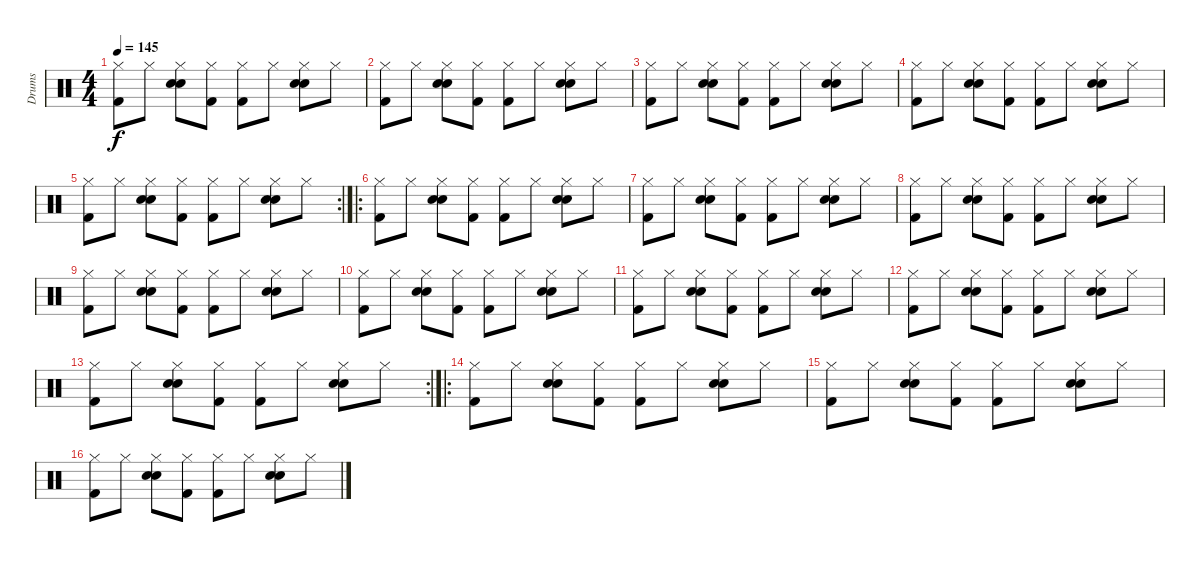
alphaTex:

\track ("Drums" "Drums") {instrument percussion}
\staff {score}
\articulation defaults
\ts (4 4)
\tempo 145
\clef neutral
\ks c
("Hi-Hat (closed)" "Kick (hit) 2").8{dy f} "Hi-Hat (closed)".8 ("Hi-Hat (closed)" "Electric Snare (hit)" "Snare (hit) 2").8 ("Hi-Hat (closed)" "Kick (hit) 2").8 ("Hi-Hat (closed)" "Kick (hit) 2").8 "Hi-Hat (closed)".8 ("Hi-Hat (closed)" "Electric Snare (hit)" "Snare (hit) 2").8 "Hi-Hat (closed)".8 |
("Hi-Hat (closed)" "Kick (hit) 2").8 "Hi-Hat (closed)".8 ("Hi-Hat (closed)" "Electric Snare (hit)" "Snare (hit) 2").8 ("Hi-Hat (closed)" "Kick (hit) 2").8 ("Hi-Hat (closed)" "Kick (hit) 2").8 "Hi-Hat (closed)".8 ("Hi-Hat (closed)" "Electric Snare (hit)" "Snare (hit) 2").8 "Hi-Hat (closed)".8 |
("Hi-Hat (closed)" "Kick (hit) 2").8 "Hi-Hat (closed)".8 ("Hi-Hat (closed)" "Electric Snare (hit)" "Snare (hit) 2").8 ("Hi-Hat (closed)" "Kick (hit) 2").8 ("Hi-Hat (closed)" "Kick (hit) 2").8 "Hi-Hat (closed)".8 ("Hi-Hat (closed)" "Electric Snare (hit)" "Snare (hit) 2").8 "Hi-Hat (closed)".8 |
("Hi-Hat (closed)" "Kick (hit) 2").8 "Hi-Hat (closed)".8 ("Hi-Hat (closed)" "Electric Snare (hit)" "Snare (hit) 2").8 ("Hi-Hat (closed)" "Kick (hit) 2").8 ("Hi-Hat (closed)" "Kick (hit) 2").8 "Hi-Hat (closed)".8 ("Hi-Hat (closed)" "Electric Snare (hit)" "Snare (hit) 2").8 "Hi-Hat (closed)".8 |
\rc 2
("Hi-Hat (closed)" "Kick (hit) 2").8 "Hi-Hat (closed)".8 ("Hi-Hat (closed)" "Electric Snare (hit)" "Snare (hit) 2").8 ("Hi-Hat (closed)" "Kick (hit) 2").8 ("Hi-Hat (closed)" "Kick (hit) 2").8 "Hi-Hat (closed)".8 ("Hi-Hat (closed)" "Electric Snare (hit)" "Snare (hit) 2").8 "Hi-Hat (closed)".8 |
\ro
("Hi-Hat (closed)" "Kick (hit) 2").8 "Hi-Hat (closed)".8 ("Hi-Hat (closed)" "Electric Snare (hit)" "Snare (hit) 2").8 ("Hi-Hat (closed)" "Kick (hit) 2").8 ("Hi-Hat (closed)" "Kick (hit) 2").8 "Hi-Hat (closed)".8 ("Hi-Hat (closed)" "Electric Snare (hit)" "Snare (hit) 2").8 "Hi-Hat (closed)".8 |
("Hi-Hat (closed)" "Kick (hit) 2").8 "Hi-Hat (closed)".8 ("Hi-Hat (closed)" "Electric Snare (hit)" "Snare (hit) 2").8 ("Hi-Hat (closed)" "Kick (hit) 2").8 ("Hi-Hat (closed)" "Kick (hit) 2").8 "Hi-Hat (closed)".8 ("Hi-Hat (closed)" "Electric Snare (hit)" "Snare (hit) 2").8 "Hi-Hat (closed)".8 |
("Hi-Hat (closed)" "Kick (hit) 2").8 "Hi-Hat (closed)".8 ("Hi-Hat (closed)" "Electric Snare (hit)" "Snare (hit) 2").8 ("Hi-Hat (closed)" "Kick (hit) 2").8 ("Hi-Hat (closed)" "Kick (hit) 2").8 "Hi-Hat (closed)".8 ("Hi-Hat (closed)" "Electric Snare (hit)" "Snare (hit) 2").8 "Hi-Hat (closed)".8 |
("Hi-Hat (closed)" "Kick (hit) 2").8 "Hi-Hat (closed)".8 ("Hi-Hat (closed)" "Electric Snare (hit)" "Snare (hit) 2").8 ("Hi-Hat (closed)" "Kick (hit) 2").8 ("Hi-Hat (closed)" "Kick (hit) 2").8 "Hi-Hat (closed)".8 ("Hi-Hat (closed)" "Electric Snare (hit)" "Snare (hit) 2").8 "Hi-Hat (closed)".8 |
("Hi-Hat (closed)" "Kick (hit) 2").8 "Hi-Hat (closed)".8 ("Hi-Hat (closed)" "Electric Snare (hit)" "Snare (hit) 2").8 ("Hi-Hat (closed)" "Kick (hit) 2").8 ("Hi-Hat (closed)" "Kick (hit) 2").8 "Hi-Hat (closed)".8 ("Hi-Hat (closed)" "Electric Snare (hit)" "Snare (hit) 2").8 "Hi-Hat (closed)".8 |
("Hi-Hat (closed)" "Kick (hit) 2").8 "Hi-Hat (closed)".8 ("Hi-Hat (closed)" "Electric Snare (hit)" "Snare (hit) 2").8 ("Hi-Hat (closed)" "Kick (hit) 2").8 ("Hi-Hat (closed)" "Kick (hit) 2").8 "Hi-Hat (closed)".8 ("Hi-Hat (closed)" "Electric Snare (hit)" "Snare (hit) 2").8 "Hi-Hat (closed)".8 |
("Hi-Hat (closed)" "Kick (hit) 2").8 "Hi-Hat (closed)".8 ("Hi-Hat (closed)" "Electric Snare (hit)" "Snare (hit) 2").8 ("Hi-Hat (closed)" "Kick (hit) 2").8 ("Hi-Hat (closed)" "Kick (hit) 2").8 "Hi-Hat (closed)".8 ("Hi-Hat (closed)" "Electric Snare (hit)" "Snare (hit) 2").8 "Hi-Hat (closed)".8 |
\rc 2
("Hi-Hat (closed)" "Kick (hit) 2").8 "Hi-Hat (closed)".8 ("Hi-Hat (closed)" "Electric Snare (hit)" "Snare (hit) 2").8 ("Hi-Hat (closed)" "Kick (hit) 2").8 ("Hi-Hat (closed)" "Kick (hit) 2").8 "Hi-Hat (closed)".8 ("Hi-Hat (closed)" "Electric Snare (hit)" "Snare (hit) 2").8 "Hi-Hat (closed)".8 |
\ro
("Hi-Hat (closed)" "Kick (hit) 2").8 "Hi-Hat (closed)".8 ("Hi-Hat (closed)" "Electric Snare (hit)" "Snare (hit) 2").8 ("Hi-Hat (closed)" "Kick (hit) 2").8 ("Hi-Hat (closed)" "Kick (hit) 2").8 "Hi-Hat (closed)".8 ("Hi-Hat (closed)" "Electric Snare (hit)" "Snare (hit) 2").8 "Hi-Hat (closed)".8 |
("Hi-Hat (closed)" "Kick (hit) 2").8 "Hi-Hat (closed)".8 ("Hi-Hat (closed)" "Electric Snare (hit)" "Snare (hit) 2").8 ("Hi-Hat (closed)" "Kick (hit) 2").8 ("Hi-Hat (closed)" "Kick (hit) 2").8 "Hi-Hat (closed)".8 ("Hi-Hat (closed)" "Electric Snare (hit)" "Snare (hit) 2").8 "Hi-Hat (closed)".8 |
("Hi-Hat (closed)" "Kick (hit) 2").8 "Hi-Hat (closed)".8 ("Hi-Hat (closed)" "Electric Snare (hit)" "Snare (hit) 2").8 ("Hi-Hat (closed)" "Kick (hit) 2").8 ("Hi-Hat (closed)" "Kick (hit) 2").8 "Hi-Hat (closed)".8 ("Hi-Hat (closed)" "Electric Snare (hit)" "Snare (hit) 2").8 "Hi-Hat (closed)".8
